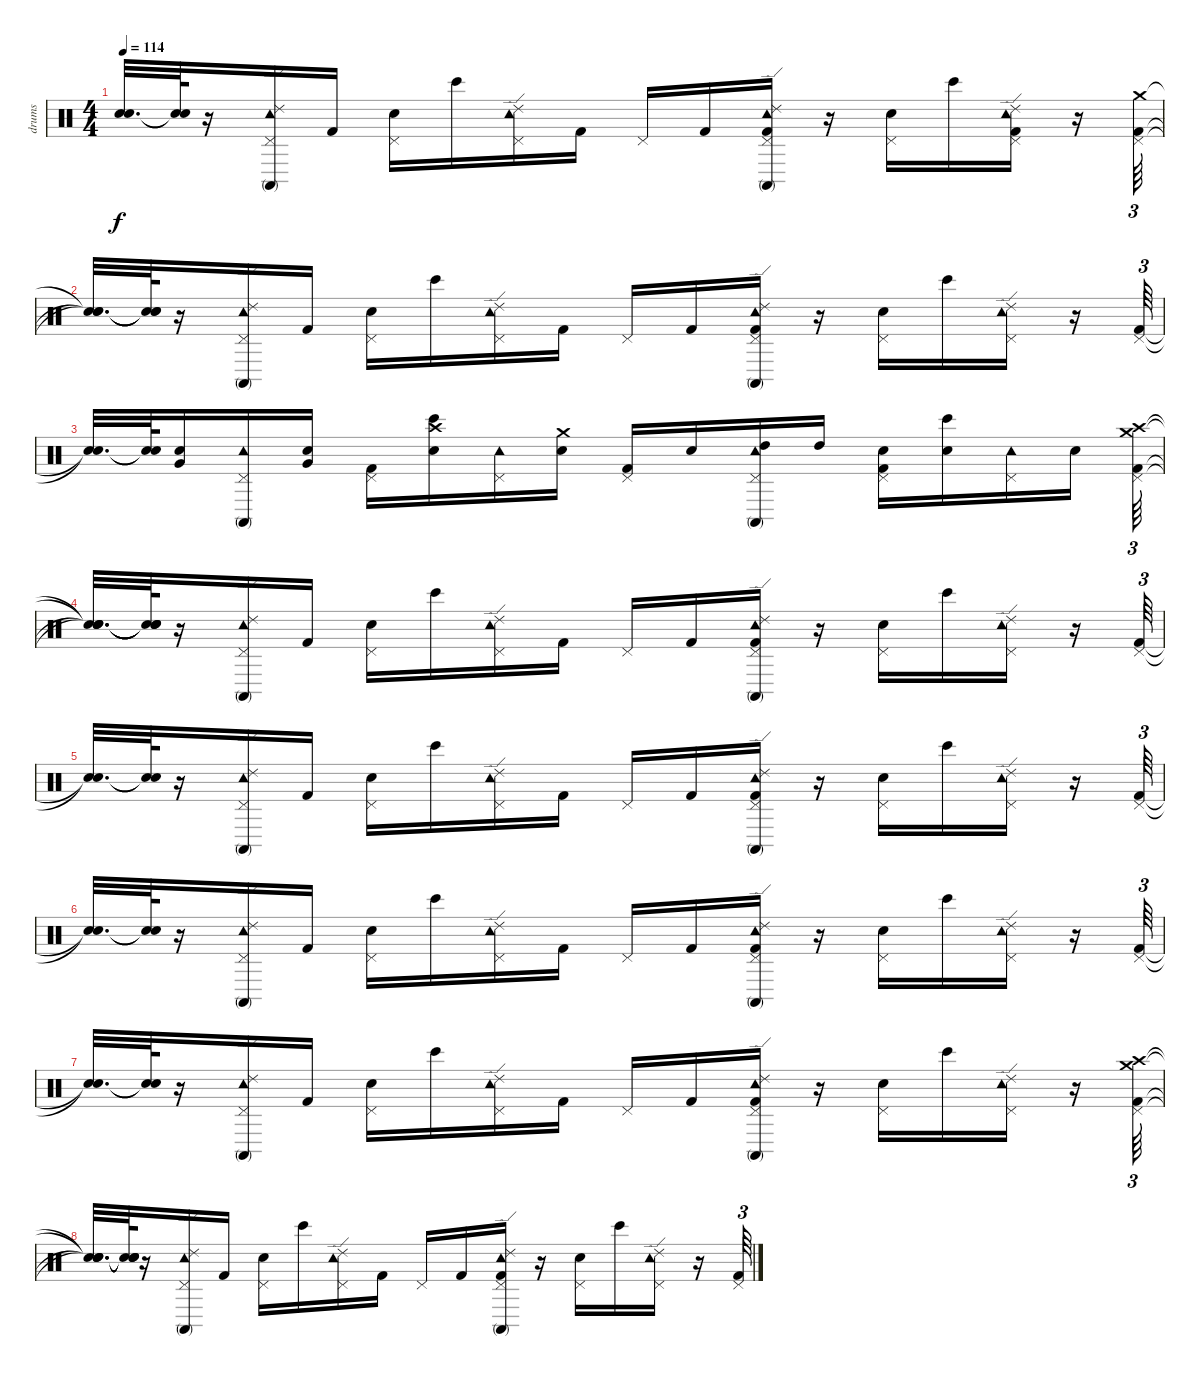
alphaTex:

\track ("drums" "drums") {instrument percussion}
\staff {score}
\articulation defaults
\ts (4 4)
\tempo 114
\clef neutral
\ks c
("Snare (hit)"{t} "Snare (hit)"{t}).32{d dy f} ("Snare (hit)"{t} "Snare (hit)"{t}).64 r.16 ("Pedal Hi-Hat (hit)" "Tambourine (hit)" "Conga high (mute)" "Ride (edge) 2").16 "Kick (hit) 2".16 ("Pedal Hi-Hat (hit)" "Electric Snare (hit)").16 "Bongo High (hit)".16 ("Pedal Hi-Hat (hit)" "Tambourine (hit)" "Ride (edge) 2").16 "Kick (hit) 2".16 "Pedal Hi-Hat (hit)".16 "Kick (hit) 2".16 ("Pedal Hi-Hat (hit)" "Conga high (mute)" "Tambourine (hit)" "Ride (edge) 2" "Kick (hit) 2").16 r.16 ("Pedal Hi-Hat (hit)" "Electric Snare (hit)").16 "Bongo High (hit)".16 ("Pedal Hi-Hat (hit)" "Tambourine (hit)" "Kick (hit) 2" "Ride (edge) 2").16 r.16 ("Crash medium (hit)" "Pedal Hi-Hat (hit)" "Kick (hit) 2").64{tu (3 2)} |
("Snare (hit)"{t} "Snare (hit)"{t} "Snare (hit)"{t}).32{d} ("Snare (hit)"{t} "Snare (hit)"{t} "Snare (hit)"{t}).64 r.16 ("Pedal Hi-Hat (hit)" "Tambourine (hit)" "Conga high (mute)" "Ride (edge) 2").16 "Kick (hit) 2".16 ("Pedal Hi-Hat (hit)" "Electric Snare (hit)").16 "Bongo High (hit)".16 ("Pedal Hi-Hat (hit)" "Tambourine (hit)" "Ride (edge) 2").16 "Kick (hit) 2".16 "Pedal Hi-Hat (hit)".16 "Kick (hit) 2".16 ("Pedal Hi-Hat (hit)" "Conga high (mute)" "Tambourine (hit)" "Ride (edge) 2" "Kick (hit) 2").16 r.16 ("Pedal Hi-Hat (hit)" "Electric Snare (hit)").16 "Bongo High (hit)".16 ("Ride (edge) 2" "Pedal Hi-Hat (hit)" "Tambourine (hit)").16 r.16 ("Kick (hit) 2" "Pedal Hi-Hat (hit)").64{tu (3 2)} |
("Snare (hit)"{t} "Snare (hit)"{t}).32{d} ("Snare (hit)"{t} "Snare (hit)"{t}).64 ("Electric Snare (hit)" "Very Low Tom (hit)").16 ("Pedal Hi-Hat (hit)" "Tambourine (hit)" "Conga high (mute)").16 ("Electric Snare (hit)" "Very Low Tom (hit)").16 ("Kick (hit) 2" "Pedal Hi-Hat (hit)").16 ("Electric Snare (hit)" "Crash high (hit)" "Bongo High (hit)").16 ("Pedal Hi-Hat (hit)" "Tambourine (hit)").16 ("Electric Snare (hit)" "Crash medium (hit)").16 ("Kick (hit) 2" "Pedal Hi-Hat (hit)").16 "Electric Snare (hit)".16 ("High Tom (hit)" "Pedal Hi-Hat (hit)" "Conga high (mute)" "Tambourine (hit)").16 "High Tom (hit)".16 ("Electric Snare (hit)" "Kick (hit) 2" "Pedal Hi-Hat (hit)").16 ("Electric Snare (hit)" "Bongo High (hit)").16 ("Pedal Hi-Hat (hit)" "Tambourine (hit)").16 "Electric Snare (hit)".16 ("Crash medium (hit)" "Crash high (hit)" "Kick (hit) 2" "Pedal Hi-Hat (hit)").64{tu (3 2)} |
("Snare (hit)"{t} "Snare (hit)"{t} "Snare (hit)"{t} "Snare (hit)"{t}).32{d} ("Snare (hit)"{t} "Snare (hit)"{t} "Snare (hit)"{t} "Snare (hit)"{t}).64 r.16 ("Ride (edge) 2" "Pedal Hi-Hat (hit)" "Tambourine (hit)" "Conga high (mute)").16 "Kick (hit) 2".16 ("Electric Snare (hit)" "Pedal Hi-Hat (hit)").16 "Bongo High (hit)".16 ("Ride (edge) 2" "Pedal Hi-Hat (hit)" "Tambourine (hit)").16 "Kick (hit) 2".16 "Pedal Hi-Hat (hit)".16 "Kick (hit) 2".16 ("Ride (edge) 2" "Kick (hit) 2" "Pedal Hi-Hat (hit)" "Conga high (mute)" "Tambourine (hit)").16 r.16 ("Electric Snare (hit)" "Pedal Hi-Hat (hit)").16 "Bongo High (hit)".16 ("Ride (edge) 2" "Pedal Hi-Hat (hit)" "Tambourine (hit)").16 r.16 ("Kick (hit) 2" "Pedal Hi-Hat (hit)").64{tu (3 2)} |
("Snare (hit)"{t} "Snare (hit)"{t}).32{d} ("Snare (hit)"{t} "Snare (hit)"{t}).64 r.16 ("Ride (edge) 2" "Pedal Hi-Hat (hit)" "Tambourine (hit)" "Conga high (mute)").16 "Kick (hit) 2".16 ("Electric Snare (hit)" "Pedal Hi-Hat (hit)").16 "Bongo High (hit)".16 ("Ride (edge) 2" "Pedal Hi-Hat (hit)" "Tambourine (hit)").16 "Kick (hit) 2".16 "Pedal Hi-Hat (hit)".16 "Kick (hit) 2".16 ("Ride (edge) 2" "Kick (hit) 2" "Pedal Hi-Hat (hit)" "Conga high (mute)" "Tambourine (hit)").16 r.16 ("Electric Snare (hit)" "Pedal Hi-Hat (hit)").16 "Bongo High (hit)".16 ("Ride (edge) 2" "Pedal Hi-Hat (hit)" "Tambourine (hit)").16 r.16 ("Kick (hit) 2" "Pedal Hi-Hat (hit)").64{tu (3 2)} |
("Snare (hit)"{t} "Snare (hit)"{t}).32{d} ("Snare (hit)"{t} "Snare (hit)"{t}).64 r.16 ("Ride (edge) 2" "Pedal Hi-Hat (hit)" "Tambourine (hit)" "Conga high (mute)").16 "Kick (hit) 2".16 ("Electric Snare (hit)" "Pedal Hi-Hat (hit)").16 "Bongo High (hit)".16 ("Ride (edge) 2" "Pedal Hi-Hat (hit)" "Tambourine (hit)").16 "Kick (hit) 2".16 "Pedal Hi-Hat (hit)".16 "Kick (hit) 2".16 ("Ride (edge) 2" "Kick (hit) 2" "Pedal Hi-Hat (hit)" "Conga high (mute)" "Tambourine (hit)").16 r.16 ("Electric Snare (hit)" "Pedal Hi-Hat (hit)").16 "Bongo High (hit)".16 ("Ride (edge) 2" "Pedal Hi-Hat (hit)" "Tambourine (hit)").16 r.16 ("Kick (hit) 2" "Pedal Hi-Hat (hit)").64{tu (3 2)} |
("Snare (hit)"{t} "Snare (hit)"{t}).32{d} ("Snare (hit)"{t} "Snare (hit)"{t}).64 r.16 ("Ride (edge) 2" "Pedal Hi-Hat (hit)" "Tambourine (hit)" "Conga high (mute)").16 "Kick (hit) 2".16 ("Electric Snare (hit)" "Pedal Hi-Hat (hit)").16 "Bongo High (hit)".16 ("Ride (edge) 2" "Pedal Hi-Hat (hit)" "Tambourine (hit)").16 "Kick (hit) 2".16 "Pedal Hi-Hat (hit)".16 "Kick (hit) 2".16 ("Ride (edge) 2" "Kick (hit) 2" "Pedal Hi-Hat (hit)" "Conga high (mute)" "Tambourine (hit)").16 r.16 ("Electric Snare (hit)" "Pedal Hi-Hat (hit)").16 "Bongo High (hit)".16 ("Ride (edge) 2" "Pedal Hi-Hat (hit)" "Tambourine (hit)").16 r.16 ("Crash medium (hit)" "Crash high (hit)" "Kick (hit) 2" "Pedal Hi-Hat (hit)").64{tu (3 2)} |
("Snare (hit)"{t} "Snare (hit)"{t} "Snare (hit)"{t} "Snare (hit)"{t}).32{d} ("Snare (hit)"{t} "Snare (hit)"{t} "Snare (hit)"{t} "Snare (hit)"{t}).64 r.16 ("Ride (edge) 2" "Pedal Hi-Hat (hit)" "Tambourine (hit)" "Conga high (mute)").16 "Kick (hit) 2".16 ("Electric Snare (hit)" "Pedal Hi-Hat (hit)").16 "Bongo High (hit)".16 ("Ride (edge) 2" "Pedal Hi-Hat (hit)" "Tambourine (hit)").16 "Kick (hit) 2".16 "Pedal Hi-Hat (hit)".16 "Kick (hit) 2".16 ("Ride (edge) 2" "Kick (hit) 2" "Pedal Hi-Hat (hit)" "Conga high (mute)" "Tambourine (hit)").16 r.16 ("Electric Snare (hit)" "Pedal Hi-Hat (hit)").16 "Bongo High (hit)".16 ("Ride (edge) 2" "Pedal Hi-Hat (hit)" "Tambourine (hit)").16 r.16 ("Kick (hit) 2" "Pedal Hi-Hat (hit)").64{tu (3 2)}
